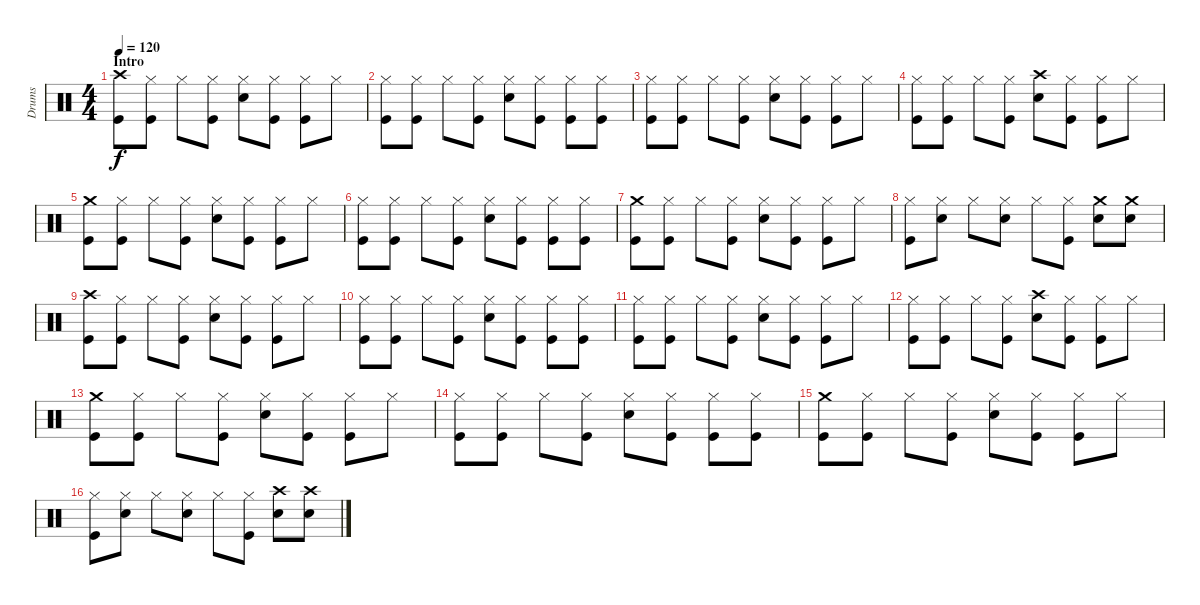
\track ("Drums" "Drums") {instrument percussion}
\staff {score}
\articulation defaults
\ts (4 4)
\section ("" "Intro")
\tempo 120
\clef neutral
\ks c
("Kick (hit)" "Crash high (hit)").8{dy f} ("Kick (hit)" "Hi-Hat (closed)").8 "Hi-Hat (closed)".8 ("Kick (hit)" "Hi-Hat (closed)").8 ("Electric Snare (hit)" "Hi-Hat (closed)").8 ("Kick (hit)" "Hi-Hat (closed)").8 ("Kick (hit)" "Hi-Hat (closed)").8 "Hi-Hat (closed)".8 |
("Kick (hit)" "Hi-Hat (closed)").8 ("Kick (hit)" "Hi-Hat (closed)").8 "Hi-Hat (closed)".8 ("Kick (hit)" "Hi-Hat (closed)").8 ("Electric Snare (hit)" "Hi-Hat (closed)").8 ("Kick (hit)" "Hi-Hat (closed)").8 ("Kick (hit)" "Hi-Hat (closed)").8 ("Kick (hit)" "Hi-Hat (closed)").8 |
("Kick (hit)" "Hi-Hat (closed)").8 ("Kick (hit)" "Hi-Hat (closed)").8 "Hi-Hat (closed)".8 ("Kick (hit)" "Hi-Hat (closed)").8 ("Electric Snare (hit)" "Hi-Hat (closed)").8 ("Kick (hit)" "Hi-Hat (closed)").8 ("Kick (hit)" "Hi-Hat (closed)").8 "Hi-Hat (closed)".8 |
("Kick (hit)" "Hi-Hat (closed)").8 ("Kick (hit)" "Hi-Hat (closed)").8 "Hi-Hat (closed)".8 ("Kick (hit)" "Hi-Hat (closed)").8 ("Electric Snare (hit)" "Crash high (hit)").8 ("Kick (hit)" "Hi-Hat (closed)").8 ("Kick (hit)" "Hi-Hat (closed)").8 "Hi-Hat (closed)".8 |
("Kick (hit)" "Crash medium (hit)").8 ("Kick (hit)" "Hi-Hat (closed)").8 "Hi-Hat (closed)".8 ("Kick (hit)" "Hi-Hat (closed)").8 ("Electric Snare (hit)" "Hi-Hat (closed)").8 ("Kick (hit)" "Hi-Hat (closed)").8 ("Kick (hit)" "Hi-Hat (closed)").8 "Hi-Hat (closed)".8 |
("Kick (hit)" "Hi-Hat (closed)").8 ("Kick (hit)" "Hi-Hat (closed)").8 "Hi-Hat (closed)".8 ("Kick (hit)" "Hi-Hat (closed)").8 ("Electric Snare (hit)" "Hi-Hat (closed)").8 ("Kick (hit)" "Hi-Hat (closed)").8 ("Kick (hit)" "Hi-Hat (closed)").8 ("Kick (hit)" "Hi-Hat (closed)").8 |
("Kick (hit)" "Crash medium (hit)").8 ("Kick (hit)" "Hi-Hat (closed)").8 "Hi-Hat (closed)".8 ("Kick (hit)" "Hi-Hat (closed)").8 ("Electric Snare (hit)" "Hi-Hat (closed)").8 ("Kick (hit)" "Hi-Hat (closed)").8 ("Kick (hit)" "Hi-Hat (closed)").8 "Hi-Hat (closed)".8 |
("Kick (hit)" "Hi-Hat (closed)").8 ("Electric Snare (hit)" "Hi-Hat (closed)").8 "Hi-Hat (closed)".8 ("Electric Snare (hit)" "Hi-Hat (closed)").8 "Hi-Hat (closed)".8 ("Kick (hit)" "Hi-Hat (closed)").8 ("Electric Snare (hit)" "Crash medium (hit)").8 ("Electric Snare (hit)" "Crash medium (hit)").8 |
("Kick (hit)" "Crash high (hit)").8 ("Kick (hit)" "Hi-Hat (closed)").8 "Hi-Hat (closed)".8 ("Kick (hit)" "Hi-Hat (closed)").8 ("Electric Snare (hit)" "Hi-Hat (closed)").8 ("Kick (hit)" "Hi-Hat (closed)").8 ("Kick (hit)" "Hi-Hat (closed)").8 "Hi-Hat (closed)".8 |
("Kick (hit)" "Hi-Hat (closed)").8 ("Kick (hit)" "Hi-Hat (closed)").8 "Hi-Hat (closed)".8 ("Kick (hit)" "Hi-Hat (closed)").8 ("Electric Snare (hit)" "Hi-Hat (closed)").8 ("Kick (hit)" "Hi-Hat (closed)").8 ("Kick (hit)" "Hi-Hat (closed)").8 ("Kick (hit)" "Hi-Hat (closed)").8 |
("Kick (hit)" "Hi-Hat (closed)").8 ("Kick (hit)" "Hi-Hat (closed)").8 "Hi-Hat (closed)".8 ("Kick (hit)" "Hi-Hat (closed)").8 ("Electric Snare (hit)" "Hi-Hat (closed)").8 ("Kick (hit)" "Hi-Hat (closed)").8 ("Kick (hit)" "Hi-Hat (closed)").8 "Hi-Hat (closed)".8 |
("Kick (hit)" "Hi-Hat (closed)").8 ("Kick (hit)" "Hi-Hat (closed)").8 "Hi-Hat (closed)".8 ("Kick (hit)" "Hi-Hat (closed)").8 ("Electric Snare (hit)" "Crash high (hit)").8 ("Kick (hit)" "Hi-Hat (closed)").8 ("Kick (hit)" "Hi-Hat (closed)").8 "Hi-Hat (closed)".8 |
("Kick (hit)" "Crash medium (hit)").8 ("Kick (hit)" "Hi-Hat (closed)").8 "Hi-Hat (closed)".8 ("Kick (hit)" "Hi-Hat (closed)").8 ("Electric Snare (hit)" "Hi-Hat (closed)").8 ("Kick (hit)" "Hi-Hat (closed)").8 ("Kick (hit)" "Hi-Hat (closed)").8 "Hi-Hat (closed)".8 |
("Kick (hit)" "Hi-Hat (closed)").8 ("Kick (hit)" "Hi-Hat (closed)").8 "Hi-Hat (closed)".8 ("Kick (hit)" "Hi-Hat (closed)").8 ("Electric Snare (hit)" "Hi-Hat (closed)").8 ("Kick (hit)" "Hi-Hat (closed)").8 ("Kick (hit)" "Hi-Hat (closed)").8 ("Kick (hit)" "Hi-Hat (closed)").8 |
("Kick (hit)" "Crash medium (hit)").8 ("Kick (hit)" "Hi-Hat (closed)").8 "Hi-Hat (closed)".8 ("Kick (hit)" "Hi-Hat (closed)").8 ("Electric Snare (hit)" "Hi-Hat (closed)").8 ("Kick (hit)" "Hi-Hat (closed)").8 ("Kick (hit)" "Hi-Hat (closed)").8 "Hi-Hat (closed)".8 |
("Kick (hit)" "Hi-Hat (closed)").8 ("Electric Snare (hit)" "Hi-Hat (closed)").8 "Hi-Hat (closed)".8 ("Electric Snare (hit)" "Hi-Hat (closed)").8 "Hi-Hat (closed)".8 ("Kick (hit)" "Hi-Hat (closed)").8 ("Electric Snare (hit)" "Crash high (hit)").8 ("Electric Snare (hit)" "Crash high (hit)").8
